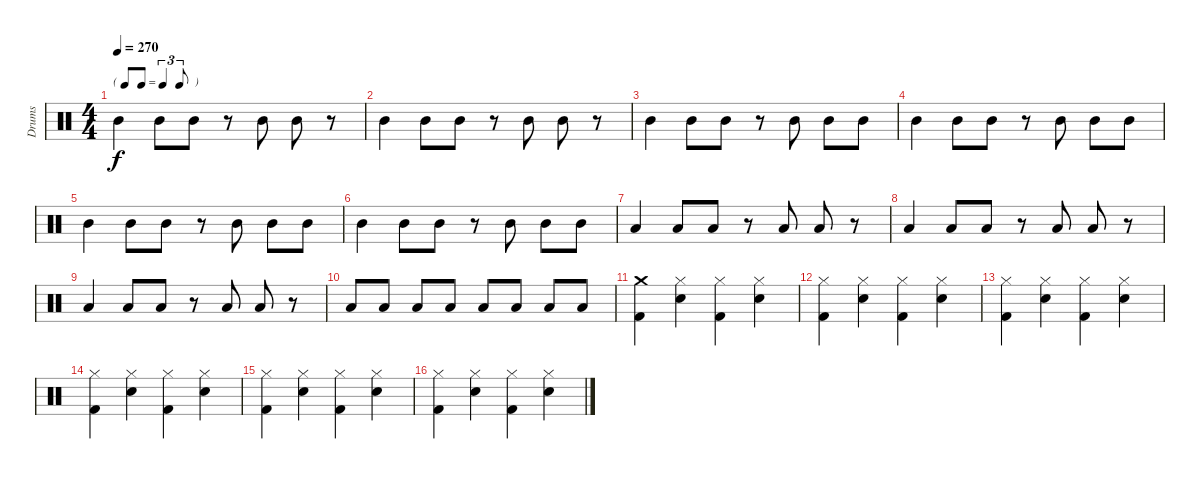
\track ("Drums" "Drums") {instrument percussion}
\staff {score}
\articulation defaults
\ts (4 4)
\tf triplet8th
\tempo 270
\clef neutral
\ks c "Mid Tom (hit)".4{dy f} "Mid Tom (hit)".8 "Mid Tom (hit)".8
r.8 "Mid Tom (hit)".8 "Mid Tom (hit)".8 r.8 |
"Mid Tom (hit)".4 "Mid Tom (hit)".8 "Mid Tom (hit)".8 r.8 "Mid Tom (hit)".8 "Mid Tom (hit)".8 r.8 |
"Mid Tom (hit)".4 "Mid Tom (hit)".8 "Mid Tom (hit)".8 r.8 "Mid Tom (hit)".8 "Mid Tom (hit)".8 "Mid Tom (hit)".8 |
"Mid Tom (hit)".4 "Mid Tom (hit)".8 "Mid Tom (hit)".8 r.8 "Mid Tom (hit)".8 "Mid Tom (hit)".8 "Mid Tom (hit)".8 |
"Mid Tom (hit)".4 "Mid Tom (hit)".8 "Mid Tom (hit)".8 r.8 "Mid Tom (hit)".8 "Mid Tom (hit)".8 "Mid Tom (hit)".8 |
"Mid Tom (hit)".4 "Mid Tom (hit)".8 "Mid Tom (hit)".8 r.8 "Mid Tom (hit)".8 "Mid Tom (hit)".8 "Mid Tom (hit)".8 |
"Low Tom (hit)".4 "Low Tom (hit)".8 "Low Tom (hit)".8 r.8 "Low Tom (hit)".8 "Low Tom (hit)".8 r.8 |
"Low Tom (hit)".4 "Low Tom (hit)".8 "Low Tom (hit)".8 r.8 "Low Tom (hit)".8 "Low Tom (hit)".8 r.8 |
"Low Tom (hit)".4 "Low Tom (hit)".8 "Low Tom (hit)".8 r.8 "Low Tom (hit)".8 "Low Tom (hit)".8 r.8 |
"Low Tom (hit)".8 "Low Tom (hit)".8 "Low Tom (hit)".8 "Low Tom (hit)".8 "Low Tom (hit)".8 "Low Tom (hit)".8 "Low Tom (hit)".8 "Low Tom (hit)".8 |
("Crash medium (hit)" "Kick (hit) 2").4 ("Snare (hit) 2" "Hi-Hat (closed)").4 ("Hi-Hat (closed)" "Kick (hit) 2").4 ("Snare (hit) 2" "Hi-Hat (closed)").4 |
("Hi-Hat (closed)" "Kick (hit) 2").4 ("Snare (hit) 2" "Hi-Hat (closed)").4 ("Hi-Hat (closed)" "Kick (hit) 2").4 ("Snare (hit) 2" "Hi-Hat (closed)").4 |
("Hi-Hat (closed)" "Kick (hit) 2").4 ("Snare (hit) 2" "Hi-Hat (closed)").4 ("Hi-Hat (closed)" "Kick (hit) 2").4 ("Snare (hit) 2" "Hi-Hat (closed)").4 |
("Hi-Hat (closed)" "Kick (hit) 2").4 ("Snare (hit) 2" "Hi-Hat (closed)").4 ("Hi-Hat (closed)" "Kick (hit) 2").4 ("Snare (hit) 2" "Hi-Hat (closed)").4 |
("Hi-Hat (closed)" "Kick (hit) 2").4 ("Snare (hit) 2" "Hi-Hat (closed)").4 ("Hi-Hat (closed)" "Kick (hit) 2").4 ("Snare (hit) 2" "Hi-Hat (closed)").4 |
("Hi-Hat (closed)" "Kick (hit) 2").4 ("Snare (hit) 2" "Hi-Hat (closed)").4 ("Hi-Hat (closed)" "Kick (hit) 2").4 ("Snare (hit) 2" "Hi-Hat (closed)").4
